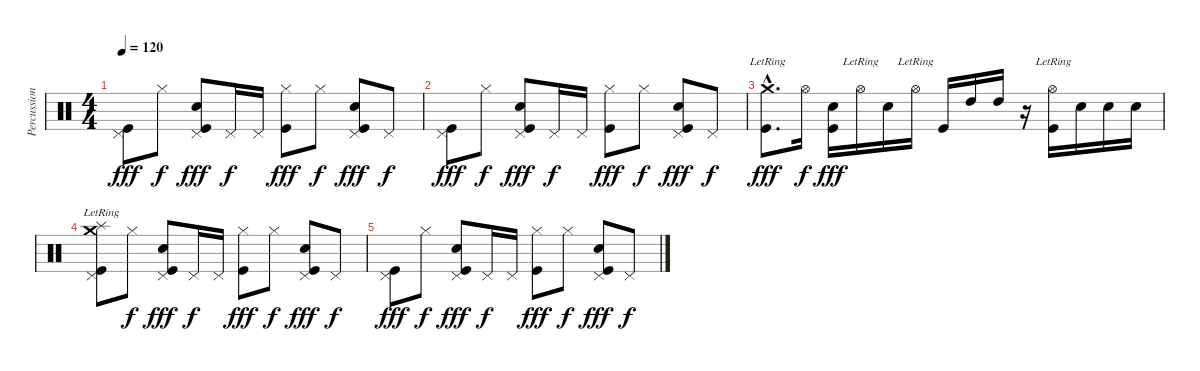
\track ("Percussions" "Percussion") {instrument percussion}
\staff {score}
\articulation defaults
\ts (4 4)
\tempo 120
\clef neutral
\ks c
("Pedal Hi-Hat (hit)" "Kick (hit)").8{dy fff} "Hi-Hat (closed)".8{dy f} ("Pedal Hi-Hat (hit)" "Kick (hit)" "Electric Snare (hit)").8{dy fff} "Pedal Hi-Hat (hit)".16{dy f} "Pedal Hi-Hat (hit)".16 ("Hi-Hat (closed)" "Kick (hit)").8{dy fff} "Hi-Hat (closed)".8{dy f} ("Pedal Hi-Hat (hit)" "Kick (hit)" "Electric Snare (hit)").8{dy fff} "Pedal Hi-Hat (hit)".8{dy f} |
("Pedal Hi-Hat (hit)" "Kick (hit)").8{dy fff} "Hi-Hat (closed)".8{dy f} ("Pedal Hi-Hat (hit)" "Kick (hit)" "Electric Snare (hit)").8{dy fff} "Pedal Hi-Hat (hit)".16{dy f} "Pedal Hi-Hat (hit)".16 ("Hi-Hat (closed)" "Kick (hit)").8{dy fff} "Hi-Hat (closed)".8{dy f} ("Pedal Hi-Hat (hit)" "Kick (hit)" "Electric Snare (hit)").8{dy fff} "Pedal Hi-Hat (hit)".8{dy f} |
("Crash medium (hit)"{hac lr} "Kick (hit)"{hac}).8{d dy fff} "Hi-Hat (open)".16{dy f} ("Kick (hit)" "Electric Snare (hit)").16{dy fff} "Hi-Hat (open)"{lr}.16 "Electric Snare (hit)".16 "Hi-Hat (open)"{lr}.16 "Kick (hit)".16 "High Tom (hit)".16 "High Tom (hit)".16 r.16 ("Hi-Hat (open)"{lr} "Kick (hit)").16 "Electric Snare (hit)".16 "Electric Snare (hit)".16 "Electric Snare (hit)".16 |
("Pedal Hi-Hat (hit)" "Kick (hit)" "Crash medium (hit)"{lr} "Splash (hit)"{lr}).8 "Hi-Hat (closed)".8{dy f} ("Pedal Hi-Hat (hit)" "Kick (hit)" "Electric Snare (hit)").8{dy fff} "Pedal Hi-Hat (hit)".16{dy f} "Pedal Hi-Hat (hit)".16 ("Hi-Hat (closed)" "Kick (hit)").8{dy fff} "Hi-Hat (closed)".8{dy f} ("Pedal Hi-Hat (hit)" "Kick (hit)" "Electric Snare (hit)").8{dy fff} "Pedal Hi-Hat (hit)".8{dy f} |
("Pedal Hi-Hat (hit)" "Kick (hit)").8{dy fff} "Hi-Hat (closed)".8{dy f} ("Pedal Hi-Hat (hit)" "Kick (hit)" "Electric Snare (hit)").8{dy fff} "Pedal Hi-Hat (hit)".16{dy f} "Pedal Hi-Hat (hit)".16 ("Hi-Hat (closed)" "Kick (hit)").8{dy fff} "Hi-Hat (closed)".8{dy f} ("Pedal Hi-Hat (hit)" "Kick (hit)" "Electric Snare (hit)").8{dy fff} "Pedal Hi-Hat (hit)".8{dy f}
